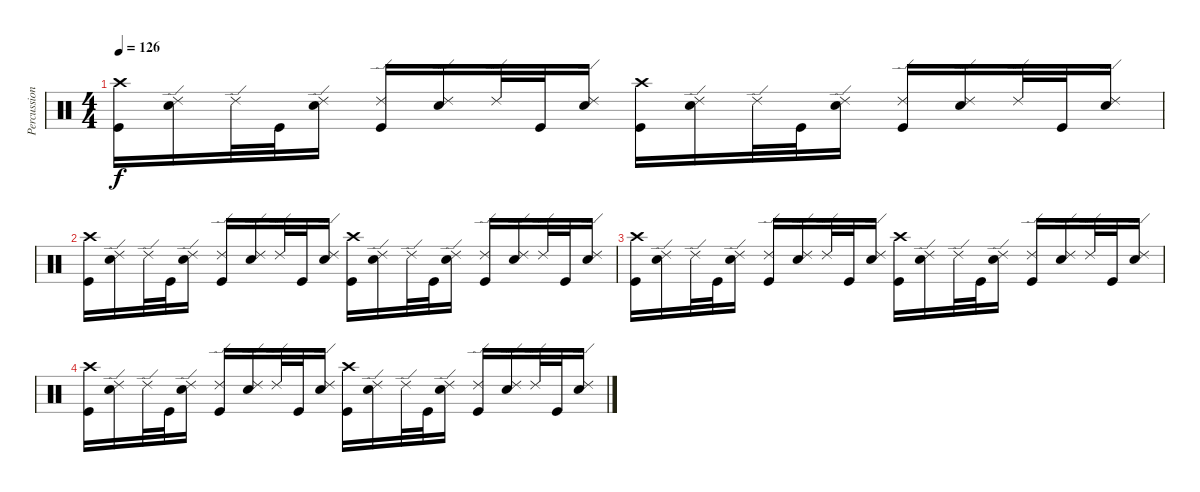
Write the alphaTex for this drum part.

\track ("Percussion" "Percussion") {instrument percussion}
\staff {score}
\articulation defaults
\ts (4 4)
\tempo 126
\clef neutral
\ks c
("Crash high (hit)" "Kick (hit)").16{dy f} ("Ride (edge) 2" "Snare (hit) 2").16 "Ride (edge) 2".32 "Kick (hit)".32 ("Ride (edge) 2" "Snare (hit) 2").16 ("Ride (edge) 2" "Kick (hit)").16 ("Ride (edge) 2" "Snare (hit) 2").16 "Ride (edge) 2".32 "Kick (hit)".32 ("Ride (edge) 2" "Snare (hit) 2").16 ("Crash high (hit)" "Kick (hit)").16 ("Ride (edge) 2" "Snare (hit) 2").16 "Ride (edge) 2".32 "Kick (hit)".32 ("Ride (edge) 2" "Snare (hit) 2").16 ("Ride (edge) 2" "Kick (hit)").16 ("Ride (edge) 2" "Snare (hit) 2").16 "Ride (edge) 2".32 "Kick (hit)".32 ("Ride (edge) 2" "Snare (hit) 2").16 |
("Crash high (hit)" "Kick (hit)").16 ("Ride (edge) 2" "Snare (hit) 2").16 "Ride (edge) 2".32 "Kick (hit)".32 ("Ride (edge) 2" "Snare (hit) 2").16 ("Ride (edge) 2" "Kick (hit)").16 ("Ride (edge) 2" "Snare (hit) 2").16 "Ride (edge) 2".32 "Kick (hit)".32 ("Ride (edge) 2" "Snare (hit) 2").16 ("Crash high (hit)" "Kick (hit)").16 ("Ride (edge) 2" "Snare (hit) 2").16 "Ride (edge) 2".32 "Kick (hit)".32 ("Ride (edge) 2" "Snare (hit) 2").16 ("Ride (edge) 2" "Kick (hit)").16 ("Ride (edge) 2" "Snare (hit) 2").16 "Ride (edge) 2".32 "Kick (hit)".32 ("Ride (edge) 2" "Snare (hit) 2").16 |
("Crash high (hit)" "Kick (hit)").16 ("Ride (edge) 2" "Snare (hit) 2").16 "Ride (edge) 2".32 "Kick (hit)".32 ("Ride (edge) 2" "Snare (hit) 2").16 ("Ride (edge) 2" "Kick (hit)").16 ("Ride (edge) 2" "Snare (hit) 2").16 "Ride (edge) 2".32 "Kick (hit)".32 ("Ride (edge) 2" "Snare (hit) 2").16 ("Crash high (hit)" "Kick (hit)").16 ("Ride (edge) 2" "Snare (hit) 2").16 "Ride (edge) 2".32 "Kick (hit)".32 ("Ride (edge) 2" "Snare (hit) 2").16 ("Ride (edge) 2" "Kick (hit)").16 ("Ride (edge) 2" "Snare (hit) 2").16 "Ride (edge) 2".32 "Kick (hit)".32 ("Ride (edge) 2" "Snare (hit) 2").16 |
("Crash high (hit)" "Kick (hit)").16 ("Ride (edge) 2" "Snare (hit) 2").16 "Ride (edge) 2".32 "Kick (hit)".32 ("Ride (edge) 2" "Snare (hit) 2").16 ("Ride (edge) 2" "Kick (hit)").16 ("Ride (edge) 2" "Snare (hit) 2").16 "Ride (edge) 2".32 "Kick (hit)".32 ("Ride (edge) 2" "Snare (hit) 2").16 ("Crash high (hit)" "Kick (hit)").16 ("Ride (edge) 2" "Snare (hit) 2").16 "Ride (edge) 2".32 "Kick (hit)".32 ("Ride (edge) 2" "Snare (hit) 2").16 ("Ride (edge) 2" "Kick (hit)").16 ("Ride (edge) 2" "Snare (hit) 2").16 "Ride (edge) 2".32 "Kick (hit)".32 ("Ride (edge) 2" "Snare (hit) 2").16
